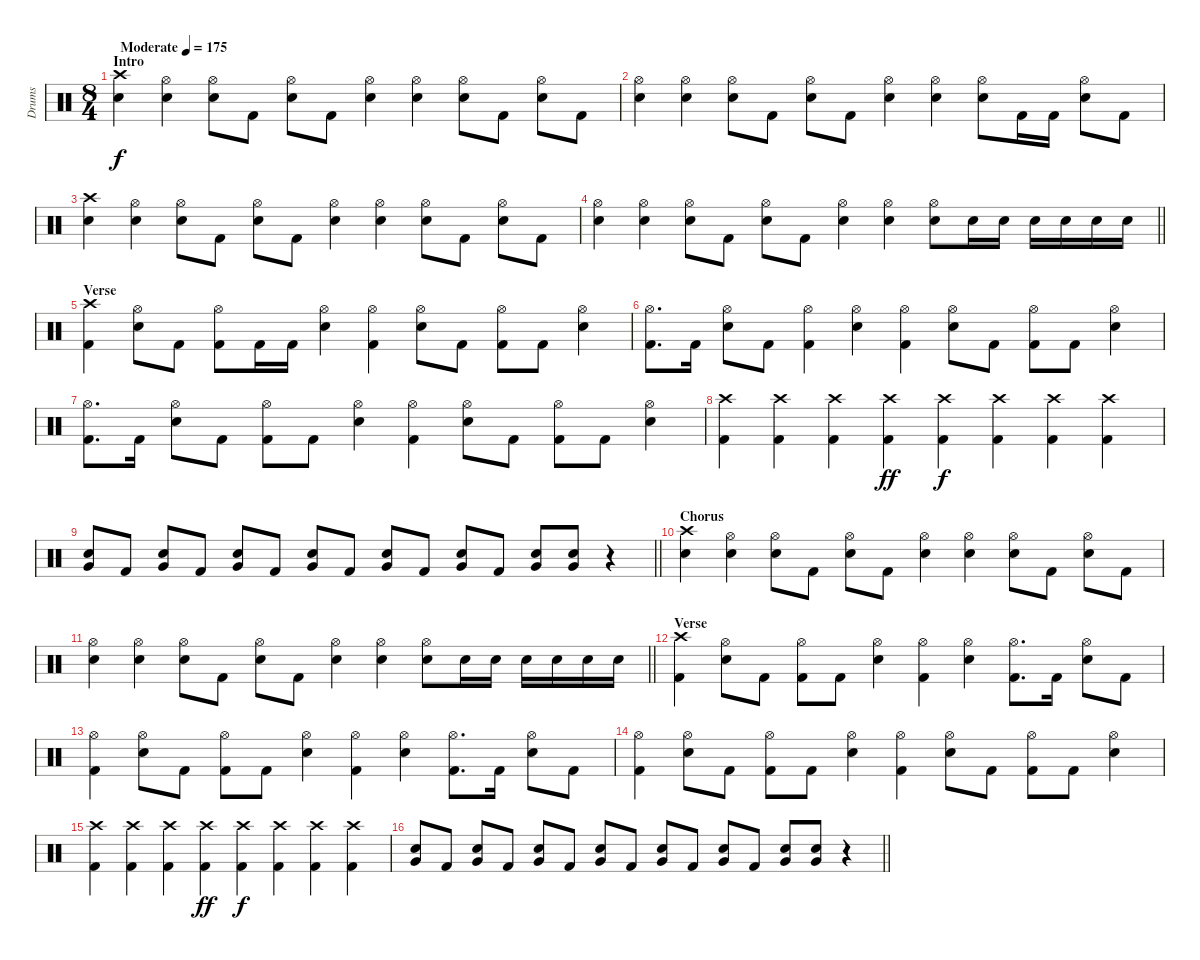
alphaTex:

\track ("Drums" "Drums") {instrument percussion}
\staff {score}
\articulation defaults
\ts (8 4)
\section ("" "Intro")
\tempo (175 "Moderate")
\clef neutral
\ks c
("Crash high (hit)" "Snare (hit) 2").4{dy f} ("Hi-Hat (open)" "Snare (hit) 2").4 ("Hi-Hat (open)" "Snare (hit) 2").8 "Kick (hit) 2".8 ("Hi-Hat (open)" "Snare (hit) 2").8 "Kick (hit) 2".8 ("Hi-Hat (open)" "Snare (hit) 2").4 ("Hi-Hat (open)" "Snare (hit) 2").4 ("Hi-Hat (open)" "Snare (hit) 2").8 "Kick (hit) 2".8 ("Hi-Hat (open)" "Snare (hit) 2").8 "Kick (hit) 2".8 |
("Hi-Hat (open)" "Snare (hit) 2").4 ("Hi-Hat (open)" "Snare (hit) 2").4 ("Hi-Hat (open)" "Snare (hit) 2").8 "Kick (hit) 2".8 ("Hi-Hat (open)" "Snare (hit) 2").8 "Kick (hit) 2".8 ("Hi-Hat (open)" "Snare (hit) 2").4 ("Hi-Hat (open)" "Snare (hit) 2").4 ("Hi-Hat (open)" "Snare (hit) 2").8 "Kick (hit) 2".16 "Kick (hit) 2".16 ("Hi-Hat (open)" "Snare (hit) 2").8 "Kick (hit) 2".8 |
("Crash high (hit)" "Snare (hit) 2").4 ("Hi-Hat (open)" "Snare (hit) 2").4 ("Hi-Hat (open)" "Snare (hit) 2").8 "Kick (hit) 2".8 ("Hi-Hat (open)" "Snare (hit) 2").8 "Kick (hit) 2".8 ("Hi-Hat (open)" "Snare (hit) 2").4 ("Hi-Hat (open)" "Snare (hit) 2").4 ("Hi-Hat (open)" "Snare (hit) 2").8 "Kick (hit) 2".8 ("Hi-Hat (open)" "Snare (hit) 2").8 "Kick (hit) 2".8 |
\barLineRight lightlight
("Hi-Hat (open)" "Snare (hit) 2").4 ("Hi-Hat (open)" "Snare (hit) 2").4 ("Hi-Hat (open)" "Snare (hit) 2").8 "Kick (hit) 2".8 ("Hi-Hat (open)" "Snare (hit) 2").8 "Kick (hit) 2".8 ("Hi-Hat (open)" "Snare (hit) 2").4 ("Hi-Hat (open)" "Snare (hit) 2").4 ("Hi-Hat (open)" "Snare (hit) 2").8 "Snare (hit) 2".16 "Snare (hit) 2".16 "Snare (hit) 2".16 "Snare (hit) 2".16 "Snare (hit) 2".16 "Snare (hit) 2".16 |
\section ("" "Verse")
("Crash high (hit)" "Kick (hit) 2").4 ("Hi-Hat (open)" "Snare (hit) 2").8 "Kick (hit) 2".8 ("Hi-Hat (open)" "Kick (hit) 2").8 "Kick (hit) 2".16 "Kick (hit) 2".16 ("Hi-Hat (open)" "Snare (hit) 2").4 ("Hi-Hat (open)" "Kick (hit) 2").4 ("Hi-Hat (open)" "Snare (hit) 2").8 "Kick (hit) 2".8 ("Hi-Hat (open)" "Kick (hit) 2").8 "Kick (hit) 2".8 ("Hi-Hat (open)" "Snare (hit) 2").4 |
("Hi-Hat (open)" "Kick (hit) 2").8{d} "Kick (hit) 2".16 ("Hi-Hat (open)" "Snare (hit) 2").8 "Kick (hit) 2".8 ("Hi-Hat (open)" "Kick (hit) 2").4 ("Hi-Hat (open)" "Snare (hit) 2").4 ("Hi-Hat (open)" "Kick (hit) 2").4 ("Hi-Hat (open)" "Snare (hit) 2").8 "Kick (hit) 2".8 ("Hi-Hat (open)" "Kick (hit) 2").8 "Kick (hit) 2".8 ("Hi-Hat (open)" "Snare (hit) 2").4 |
("Hi-Hat (open)" "Kick (hit) 2").8{d} "Kick (hit) 2".16 ("Hi-Hat (open)" "Snare (hit) 2").8 "Kick (hit) 2".8 ("Hi-Hat (open)" "Kick (hit) 2").8 "Kick (hit) 2".8 ("Hi-Hat (open)" "Snare (hit) 2").4 ("Hi-Hat (open)" "Kick (hit) 2").4 ("Hi-Hat (open)" "Snare (hit) 2").8 "Kick (hit) 2".8 ("Hi-Hat (open)" "Kick (hit) 2").8 "Kick (hit) 2".8 ("Hi-Hat (open)" "Snare (hit) 2").4 |
("Crash high (hit)" "Kick (hit) 2").4 ("Crash high (hit)" "Kick (hit) 2").4 ("Crash high (hit)" "Kick (hit) 2").4 ("Crash high (hit)" "Kick (hit) 2").4{dy ff} ("Crash high (hit)" "Kick (hit) 2").4{dy f} ("Crash high (hit)" "Kick (hit) 2").4 ("Crash high (hit)" "Kick (hit) 2").4 ("Crash high (hit)" "Kick (hit) 2").4 |
\barLineRight lightlight
("Very Low Tom (hit)" "Snare (hit) 2").8 "Kick (hit) 2".8 ("Very Low Tom (hit)" "Snare (hit) 2").8 "Kick (hit) 2".8 ("Very Low Tom (hit)" "Snare (hit) 2").8 "Kick (hit) 2".8 ("Very Low Tom (hit)" "Snare (hit) 2").8 "Kick (hit) 2".8 ("Very Low Tom (hit)" "Snare (hit) 2").8 "Kick (hit) 2".8 ("Very Low Tom (hit)" "Snare (hit) 2").8 "Kick (hit) 2".8 ("Very Low Tom (hit)" "Snare (hit) 2").8 ("Very Low Tom (hit)" "Snare (hit) 2").8 r.4 |
\section ("" "Chorus")
("Crash high (hit)" "Snare (hit) 2").4 ("Hi-Hat (open)" "Snare (hit) 2").4 ("Hi-Hat (open)" "Snare (hit) 2").8 "Kick (hit) 2".8 ("Hi-Hat (open)" "Snare (hit) 2").8 "Kick (hit) 2".8 ("Hi-Hat (open)" "Snare (hit) 2").4 ("Hi-Hat (open)" "Snare (hit) 2").4 ("Hi-Hat (open)" "Snare (hit) 2").8 "Kick (hit) 2".8 ("Hi-Hat (open)" "Snare (hit) 2").8 "Kick (hit) 2".8 |
\barLineRight lightlight
("Hi-Hat (open)" "Snare (hit) 2").4 ("Hi-Hat (open)" "Snare (hit) 2").4 ("Hi-Hat (open)" "Snare (hit) 2").8 "Kick (hit) 2".8 ("Hi-Hat (open)" "Snare (hit) 2").8 "Kick (hit) 2".8 ("Hi-Hat (open)" "Snare (hit) 2").4 ("Hi-Hat (open)" "Snare (hit) 2").4 ("Hi-Hat (open)" "Snare (hit) 2").8 "Snare (hit) 2".16 "Snare (hit) 2".16 "Snare (hit) 2".16 "Snare (hit) 2".16 "Snare (hit) 2".16 "Snare (hit) 2".16 |
\section ("" "Verse")
("Crash high (hit)" "Kick (hit) 2").4 ("Hi-Hat (open)" "Snare (hit) 2").8 "Kick (hit) 2".8 ("Hi-Hat (open)" "Kick (hit) 2").8 "Kick (hit) 2".8 ("Hi-Hat (open)" "Snare (hit) 2").4 ("Hi-Hat (open)" "Kick (hit) 2").4 ("Hi-Hat (open)" "Snare (hit) 2").4 ("Hi-Hat (open)" "Kick (hit) 2").8{d} "Kick (hit) 2".16 ("Hi-Hat (open)" "Snare (hit) 2").8 "Kick (hit) 2".8 |
("Hi-Hat (open)" "Kick (hit) 2").4 ("Hi-Hat (open)" "Snare (hit) 2").8 "Kick (hit) 2".8 ("Hi-Hat (open)" "Kick (hit) 2").8 "Kick (hit) 2".8 ("Hi-Hat (open)" "Snare (hit) 2").4 ("Hi-Hat (open)" "Kick (hit) 2").4 ("Hi-Hat (open)" "Snare (hit) 2").4 ("Hi-Hat (open)" "Kick (hit) 2").8{d} "Kick (hit) 2".16 ("Hi-Hat (open)" "Snare (hit) 2").8 "Kick (hit) 2".8 |
("Hi-Hat (open)" "Kick (hit) 2").4 ("Hi-Hat (open)" "Snare (hit) 2").8 "Kick (hit) 2".8 ("Hi-Hat (open)" "Kick (hit) 2").8 "Kick (hit) 2".8 ("Hi-Hat (open)" "Snare (hit) 2").4 ("Hi-Hat (open)" "Kick (hit) 2").4 ("Hi-Hat (open)" "Snare (hit) 2").8 "Kick (hit) 2".8 ("Hi-Hat (open)" "Kick (hit) 2").8 "Kick (hit) 2".8 ("Hi-Hat (open)" "Snare (hit) 2").4 |
("Crash high (hit)" "Kick (hit) 2").4 ("Crash high (hit)" "Kick (hit) 2").4 ("Crash high (hit)" "Kick (hit) 2").4 ("Crash high (hit)" "Kick (hit) 2").4{dy ff} ("Crash high (hit)" "Kick (hit) 2").4{dy f} ("Crash high (hit)" "Kick (hit) 2").4 ("Crash high (hit)" "Kick (hit) 2").4 ("Crash high (hit)" "Kick (hit) 2").4 |
\barLineRight lightlight
("Very Low Tom (hit)" "Snare (hit) 2").8 "Kick (hit) 2".8 ("Very Low Tom (hit)" "Snare (hit) 2").8 "Kick (hit) 2".8 ("Very Low Tom (hit)" "Snare (hit) 2").8 "Kick (hit) 2".8 ("Very Low Tom (hit)" "Snare (hit) 2").8 "Kick (hit) 2".8 ("Very Low Tom (hit)" "Snare (hit) 2").8 "Kick (hit) 2".8 ("Very Low Tom (hit)" "Snare (hit) 2").8 "Kick (hit) 2".8 ("Very Low Tom (hit)" "Snare (hit) 2").8 ("Very Low Tom (hit)" "Snare (hit) 2").8 r.4
